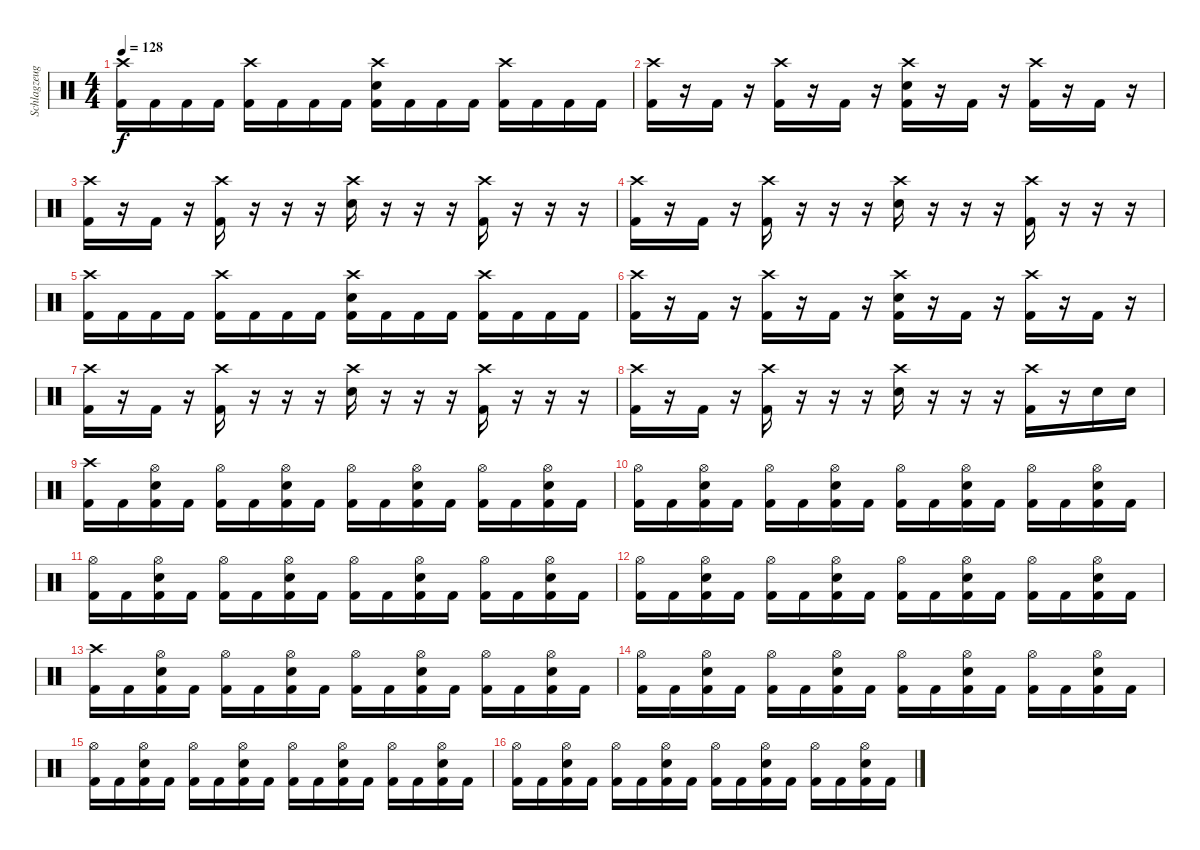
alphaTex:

\track ("Schlagzeug" "Schlagzeug") {instrument percussion}
\staff {score}
\articulation defaults
\ts (4 4)
\tempo 128
\clef neutral
\ks c
("Crash high (hit)" "Kick (hit) 2").16{dy f} "Kick (hit) 2".16 "Kick (hit) 2".16 "Kick (hit) 2".16 ("Crash high (hit)" "Kick (hit) 2").16 "Kick (hit) 2".16 "Kick (hit) 2".16 "Kick (hit) 2".16 ("Crash high (hit)" "Snare (hit) 2" "Kick (hit) 2").16 "Kick (hit) 2".16 "Kick (hit) 2".16 "Kick (hit) 2".16 ("Crash high (hit)" "Kick (hit) 2").16 "Kick (hit) 2".16 "Kick (hit) 2".16 "Kick (hit) 2".16 |
("Crash high (hit)" "Kick (hit) 2").16 r.16 "Kick (hit) 2".16 r.16 ("Crash high (hit)" "Kick (hit) 2").16 r.16 "Kick (hit) 2".16 r.16 ("Crash high (hit)" "Snare (hit) 2" "Kick (hit) 2").16 r.16 "Kick (hit) 2".16 r.16 ("Crash high (hit)" "Kick (hit) 2").16 r.16 "Kick (hit) 2".16 r.16 |
("Crash high (hit)" "Kick (hit) 2").16 r.16 "Kick (hit) 2".16 r.16 ("Crash high (hit)" "Kick (hit) 2").16 r.16 r.16 r.16 ("Crash high (hit)" "Snare (hit) 2").16 r.16 r.16 r.16 ("Crash high (hit)" "Kick (hit) 2").16 r.16 r.16 r.16 |
("Crash high (hit)" "Kick (hit) 2").16 r.16 "Kick (hit) 2".16 r.16 ("Crash high (hit)" "Kick (hit) 2").16 r.16 r.16 r.16 ("Crash high (hit)" "Snare (hit) 2").16 r.16 r.16 r.16 ("Crash high (hit)" "Kick (hit) 2").16 r.16 r.16 r.16 |
("Crash high (hit)" "Kick (hit) 2").16 "Kick (hit) 2".16 "Kick (hit) 2".16 "Kick (hit) 2".16 ("Crash high (hit)" "Kick (hit) 2").16 "Kick (hit) 2".16 "Kick (hit) 2".16 "Kick (hit) 2".16 ("Crash high (hit)" "Snare (hit) 2" "Kick (hit) 2").16 "Kick (hit) 2".16 "Kick (hit) 2".16 "Kick (hit) 2".16 ("Crash high (hit)" "Kick (hit) 2").16 "Kick (hit) 2".16 "Kick (hit) 2".16 "Kick (hit) 2".16 |
("Crash high (hit)" "Kick (hit) 2").16 r.16 "Kick (hit) 2".16 r.16 ("Crash high (hit)" "Kick (hit) 2").16 r.16 "Kick (hit) 2".16 r.16 ("Crash high (hit)" "Snare (hit) 2" "Kick (hit) 2").16 r.16 "Kick (hit) 2".16 r.16 ("Crash high (hit)" "Kick (hit) 2").16 r.16 "Kick (hit) 2".16 r.16 |
("Crash high (hit)" "Kick (hit) 2").16 r.16 "Kick (hit) 2".16 r.16 ("Crash high (hit)" "Kick (hit) 2").16 r.16 r.16 r.16 ("Crash high (hit)" "Snare (hit) 2").16 r.16 r.16 r.16 ("Crash high (hit)" "Kick (hit) 2").16 r.16 r.16 r.16 |
("Crash high (hit)" "Kick (hit) 2").16 r.16 "Kick (hit) 2".16 r.16 ("Crash high (hit)" "Kick (hit) 2").16 r.16 r.16 r.16 ("Crash high (hit)" "Snare (hit) 2").16 r.16 r.16 r.16 ("Crash high (hit)" "Kick (hit) 2").16 r.16 "Snare (hit) 2".16 "Snare (hit) 2".16 |
("Crash high (hit)" "Kick (hit) 2").16 "Kick (hit) 2".16 ("Hi-Hat (open)" "Snare (hit) 2" "Kick (hit) 2").16 "Kick (hit) 2".16 ("Hi-Hat (open)" "Kick (hit) 2").16 "Kick (hit) 2".16 ("Hi-Hat (open)" "Snare (hit) 2" "Kick (hit) 2").16 "Kick (hit) 2".16 ("Hi-Hat (open)" "Kick (hit) 2").16 "Kick (hit) 2".16 ("Hi-Hat (open)" "Snare (hit) 2" "Kick (hit) 2").16 "Kick (hit) 2".16 ("Hi-Hat (open)" "Kick (hit) 2").16 "Kick (hit) 2".16 ("Hi-Hat (open)" "Snare (hit) 2" "Kick (hit) 2").16 "Kick (hit) 2".16 |
("Hi-Hat (open)" "Kick (hit) 2").16 "Kick (hit) 2".16 ("Hi-Hat (open)" "Snare (hit) 2" "Kick (hit) 2").16 "Kick (hit) 2".16 ("Hi-Hat (open)" "Kick (hit) 2").16 "Kick (hit) 2".16 ("Hi-Hat (open)" "Snare (hit) 2" "Kick (hit) 2").16 "Kick (hit) 2".16 ("Hi-Hat (open)" "Kick (hit) 2").16 "Kick (hit) 2".16 ("Hi-Hat (open)" "Snare (hit) 2" "Kick (hit) 2").16 "Kick (hit) 2".16 ("Hi-Hat (open)" "Kick (hit) 2").16 "Kick (hit) 2".16 ("Hi-Hat (open)" "Snare (hit) 2" "Kick (hit) 2").16 "Kick (hit) 2".16 |
("Hi-Hat (open)" "Kick (hit) 2").16 "Kick (hit) 2".16 ("Hi-Hat (open)" "Snare (hit) 2" "Kick (hit) 2").16 "Kick (hit) 2".16 ("Hi-Hat (open)" "Kick (hit) 2").16 "Kick (hit) 2".16 ("Hi-Hat (open)" "Snare (hit) 2" "Kick (hit) 2").16 "Kick (hit) 2".16 ("Hi-Hat (open)" "Kick (hit) 2").16 "Kick (hit) 2".16 ("Hi-Hat (open)" "Snare (hit) 2" "Kick (hit) 2").16 "Kick (hit) 2".16 ("Hi-Hat (open)" "Kick (hit) 2").16 "Kick (hit) 2".16 ("Hi-Hat (open)" "Snare (hit) 2" "Kick (hit) 2").16 "Kick (hit) 2".16 |
("Hi-Hat (open)" "Kick (hit) 2").16 "Kick (hit) 2".16 ("Hi-Hat (open)" "Snare (hit) 2" "Kick (hit) 2").16 "Kick (hit) 2".16 ("Hi-Hat (open)" "Kick (hit) 2").16 "Kick (hit) 2".16 ("Hi-Hat (open)" "Snare (hit) 2" "Kick (hit) 2").16 "Kick (hit) 2".16 ("Hi-Hat (open)" "Kick (hit) 2").16 "Kick (hit) 2".16 ("Hi-Hat (open)" "Snare (hit) 2" "Kick (hit) 2").16 "Kick (hit) 2".16 ("Hi-Hat (open)" "Kick (hit) 2").16 "Kick (hit) 2".16 ("Hi-Hat (open)" "Snare (hit) 2" "Kick (hit) 2").16 "Kick (hit) 2".16 |
("Crash high (hit)" "Kick (hit) 2").16 "Kick (hit) 2".16 ("Hi-Hat (open)" "Snare (hit) 2" "Kick (hit) 2").16 "Kick (hit) 2".16 ("Hi-Hat (open)" "Kick (hit) 2").16 "Kick (hit) 2".16 ("Hi-Hat (open)" "Snare (hit) 2" "Kick (hit) 2").16 "Kick (hit) 2".16 ("Hi-Hat (open)" "Kick (hit) 2").16 "Kick (hit) 2".16 ("Hi-Hat (open)" "Snare (hit) 2" "Kick (hit) 2").16 "Kick (hit) 2".16 ("Hi-Hat (open)" "Kick (hit) 2").16 "Kick (hit) 2".16 ("Hi-Hat (open)" "Snare (hit) 2" "Kick (hit) 2").16 "Kick (hit) 2".16 |
("Hi-Hat (open)" "Kick (hit) 2").16 "Kick (hit) 2".16 ("Hi-Hat (open)" "Snare (hit) 2" "Kick (hit) 2").16 "Kick (hit) 2".16 ("Hi-Hat (open)" "Kick (hit) 2").16 "Kick (hit) 2".16 ("Hi-Hat (open)" "Snare (hit) 2" "Kick (hit) 2").16 "Kick (hit) 2".16 ("Hi-Hat (open)" "Kick (hit) 2").16 "Kick (hit) 2".16 ("Hi-Hat (open)" "Snare (hit) 2" "Kick (hit) 2").16 "Kick (hit) 2".16 ("Hi-Hat (open)" "Kick (hit) 2").16 "Kick (hit) 2".16 ("Hi-Hat (open)" "Snare (hit) 2" "Kick (hit) 2").16 "Kick (hit) 2".16 |
("Hi-Hat (open)" "Kick (hit) 2").16 "Kick (hit) 2".16 ("Hi-Hat (open)" "Snare (hit) 2" "Kick (hit) 2").16 "Kick (hit) 2".16 ("Hi-Hat (open)" "Kick (hit) 2").16 "Kick (hit) 2".16 ("Hi-Hat (open)" "Snare (hit) 2" "Kick (hit) 2").16 "Kick (hit) 2".16 ("Hi-Hat (open)" "Kick (hit) 2").16 "Kick (hit) 2".16 ("Hi-Hat (open)" "Snare (hit) 2" "Kick (hit) 2").16 "Kick (hit) 2".16 ("Hi-Hat (open)" "Kick (hit) 2").16 "Kick (hit) 2".16 ("Hi-Hat (open)" "Snare (hit) 2" "Kick (hit) 2").16 "Kick (hit) 2".16 |
("Hi-Hat (open)" "Kick (hit) 2").16 "Kick (hit) 2".16 ("Hi-Hat (open)" "Snare (hit) 2" "Kick (hit) 2").16 "Kick (hit) 2".16 ("Hi-Hat (open)" "Kick (hit) 2").16 "Kick (hit) 2".16 ("Hi-Hat (open)" "Snare (hit) 2" "Kick (hit) 2").16 "Kick (hit) 2".16 ("Hi-Hat (open)" "Kick (hit) 2").16 "Kick (hit) 2".16 ("Hi-Hat (open)" "Snare (hit) 2" "Kick (hit) 2").16 "Kick (hit) 2".16 ("Hi-Hat (open)" "Kick (hit) 2").16 "Kick (hit) 2".16 ("Hi-Hat (open)" "Snare (hit) 2" "Kick (hit) 2").16 "Kick (hit) 2".16
